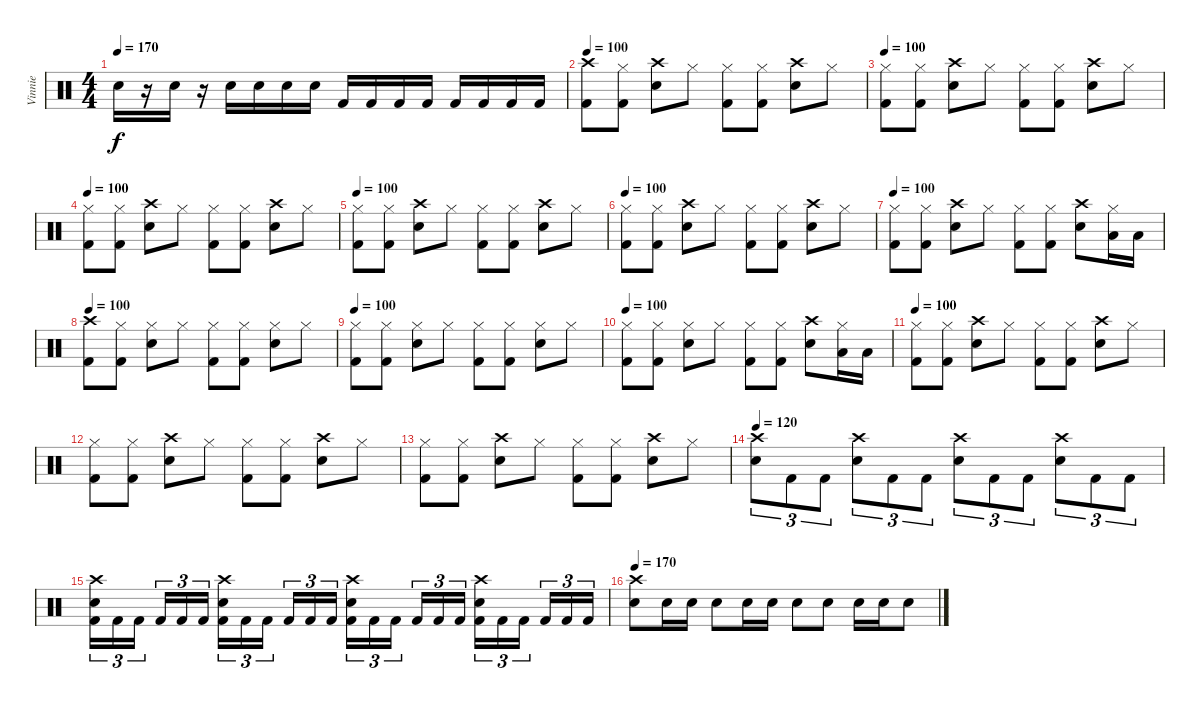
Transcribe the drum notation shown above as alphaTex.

\track ("Vinnie" "Vinnie") {instrument percussion}
\staff {score}
\articulation defaults
\ts (4 4)
\tempo 170
\clef neutral
\ks c "Electric Snare (hit)".16{dy f}
r.16 "Electric Snare (hit)".16 r.16 "Electric Snare (hit)".16 "Electric Snare (hit)".16 "Electric Snare (hit)".16 "Electric Snare (hit)".16 "Kick (hit) 2".16 "Kick (hit) 2".16 "Kick (hit) 2".16 "Kick (hit) 2".16 "Kick (hit) 2".16 "Kick (hit) 2".16 "Kick (hit) 2".16 "Kick (hit) 2".16 |
\tempo 100
("Crash high (hit)" "Kick (hit) 2").8 ("Hi-Hat (closed)" "Kick (hit) 2").8 ("Crash high (hit)" "Electric Snare (hit)").8 "Hi-Hat (closed)".8 ("Hi-Hat (closed)" "Kick (hit) 2").8 ("Hi-Hat (closed)" "Kick (hit) 2").8 ("Crash high (hit)" "Electric Snare (hit)").8 "Hi-Hat (closed)".8 |
\tempo 100
("Hi-Hat (closed)" "Kick (hit) 2").8 ("Hi-Hat (closed)" "Kick (hit) 2").8 ("Crash high (hit)" "Electric Snare (hit)").8 "Hi-Hat (closed)".8 ("Hi-Hat (closed)" "Kick (hit) 2").8 ("Hi-Hat (closed)" "Kick (hit) 2").8 ("Crash high (hit)" "Electric Snare (hit)").8 "Hi-Hat (closed)".8 |
\tempo 100
("Hi-Hat (closed)" "Kick (hit) 2").8 ("Hi-Hat (closed)" "Kick (hit) 2").8 ("Crash high (hit)" "Electric Snare (hit)").8 "Hi-Hat (closed)".8 ("Hi-Hat (closed)" "Kick (hit) 2").8 ("Hi-Hat (closed)" "Kick (hit) 2").8 ("Crash high (hit)" "Electric Snare (hit)").8 "Hi-Hat (closed)".8 |
\tempo 100
("Hi-Hat (closed)" "Kick (hit) 2").8 ("Hi-Hat (closed)" "Kick (hit) 2").8 ("Crash high (hit)" "Electric Snare (hit)").8 "Hi-Hat (closed)".8 ("Hi-Hat (closed)" "Kick (hit) 2").8 ("Hi-Hat (closed)" "Kick (hit) 2").8 ("Crash high (hit)" "Electric Snare (hit)").8 "Hi-Hat (closed)".8 |
\tempo 100
("Hi-Hat (closed)" "Kick (hit) 2").8 ("Hi-Hat (closed)" "Kick (hit) 2").8 ("Crash high (hit)" "Electric Snare (hit)").8 "Hi-Hat (closed)".8 ("Hi-Hat (closed)" "Kick (hit) 2").8 ("Hi-Hat (closed)" "Kick (hit) 2").8 ("Crash high (hit)" "Electric Snare (hit)").8 "Hi-Hat (closed)".8 |
\tempo 100
("Hi-Hat (closed)" "Kick (hit) 2").8 ("Hi-Hat (closed)" "Kick (hit) 2").8 ("Crash high (hit)" "Electric Snare (hit)").8 "Hi-Hat (closed)".8 ("Hi-Hat (closed)" "Kick (hit) 2").8 ("Hi-Hat (closed)" "Kick (hit) 2").8 ("Crash high (hit)" "Electric Snare (hit)").8 ("Hi-Hat (closed)" "Low Tom (hit)").16 "Low Tom (hit)".16 |
\tempo 100
("Crash high (hit)" "Kick (hit) 2").8 ("Hi-Hat (closed)" "Kick (hit) 2").8 ("Hi-Hat (closed)" "Electric Snare (hit)").8 "Hi-Hat (closed)".8 ("Hi-Hat (closed)" "Kick (hit) 2").8 ("Hi-Hat (closed)" "Kick (hit) 2").8 ("Hi-Hat (closed)" "Electric Snare (hit)").8 "Hi-Hat (closed)".8 |
\tempo 100
("Hi-Hat (closed)" "Kick (hit) 2").8 ("Hi-Hat (closed)" "Kick (hit) 2").8 ("Hi-Hat (closed)" "Electric Snare (hit)").8 "Hi-Hat (closed)".8 ("Hi-Hat (closed)" "Kick (hit) 2").8 ("Hi-Hat (closed)" "Kick (hit) 2").8 ("Hi-Hat (closed)" "Electric Snare (hit)").8 "Hi-Hat (closed)".8 |
\tempo 100
("Hi-Hat (closed)" "Kick (hit) 2").8 ("Hi-Hat (closed)" "Kick (hit) 2").8 ("Hi-Hat (closed)" "Electric Snare (hit)").8 "Hi-Hat (closed)".8 ("Hi-Hat (closed)" "Kick (hit) 2").8 ("Hi-Hat (closed)" "Kick (hit) 2").8 ("Crash high (hit)" "Electric Snare (hit)").8 ("Hi-Hat (closed)" "Low Tom (hit)").16 "Low Tom (hit)".16 |
\tempo 100
("Hi-Hat (closed)" "Kick (hit) 2").8 ("Hi-Hat (closed)" "Kick (hit) 2").8 ("Crash high (hit)" "Electric Snare (hit)").8 "Hi-Hat (closed)".8 ("Hi-Hat (closed)" "Kick (hit) 2").8 ("Hi-Hat (closed)" "Kick (hit) 2").8 ("Crash high (hit)" "Electric Snare (hit)").8 "Hi-Hat (closed)".8 |
("Hi-Hat (closed)" "Kick (hit) 2").8 ("Hi-Hat (closed)" "Kick (hit) 2").8 ("Crash high (hit)" "Electric Snare (hit)").8 "Hi-Hat (closed)".8 ("Hi-Hat (closed)" "Kick (hit) 2").8 ("Hi-Hat (closed)" "Kick (hit) 2").8 ("Crash high (hit)" "Electric Snare (hit)").8 "Hi-Hat (closed)".8 |
("Hi-Hat (closed)" "Kick (hit) 2").8 ("Hi-Hat (closed)" "Kick (hit) 2").8 ("Crash high (hit)" "Electric Snare (hit)").8 "Hi-Hat (closed)".8 ("Hi-Hat (closed)" "Kick (hit) 2").8 ("Hi-Hat (closed)" "Kick (hit) 2").8 ("Crash high (hit)" "Electric Snare (hit)").8 "Hi-Hat (closed)".8 |
\tempo 120
("Crash high (hit)" "Electric Snare (hit)").8{tu (3 2)} "Kick (hit) 2".8{tu (3 2)} "Kick (hit) 2".8{tu (3 2)} ("Crash high (hit)" "Electric Snare (hit)").8{tu (3 2)} "Kick (hit) 2".8{tu (3 2)} "Kick (hit) 2".8{tu (3 2)} ("Crash high (hit)" "Electric Snare (hit)").8{tu (3 2)} "Kick (hit) 2".8{tu (3 2)} "Kick (hit) 2".8{tu (3 2)} ("Crash high (hit)" "Electric Snare (hit)").8{tu (3 2)} "Kick (hit) 2".8{tu (3 2)} "Kick (hit) 2".8{tu (3 2)} |
("Crash high (hit)" "Electric Snare (hit)" "Kick (hit) 2").16{tu (3 2)} "Kick (hit) 2".16{tu (3 2)} "Kick (hit) 2".16{tu (3 2)} "Kick (hit) 2".16{tu (3 2)} "Kick (hit) 2".16{tu (3 2)} "Kick (hit) 2".16{tu (3 2)} ("Crash high (hit)" "Electric Snare (hit)" "Kick (hit) 2").16{tu (3 2)} "Kick (hit) 2".16{tu (3 2)} "Kick (hit) 2".16{tu (3 2)} "Kick (hit) 2".16{tu (3 2)} "Kick (hit) 2".16{tu (3 2)} "Kick (hit) 2".16{tu (3 2)} ("Crash high (hit)" "Electric Snare (hit)" "Kick (hit) 2").16{tu (3 2)} "Kick (hit) 2".16{tu (3 2)} "Kick (hit) 2".16{tu (3 2)} "Kick (hit) 2".16{tu (3 2)} "Kick (hit) 2".16{tu (3 2)} "Kick (hit) 2".16{tu (3 2)} ("Crash high (hit)" "Electric Snare (hit)" "Kick (hit) 2").16{tu (3 2)} "Kick (hit) 2".16{tu (3 2)} "Kick (hit) 2".16{tu (3 2)} "Kick (hit) 2".16{tu (3 2)} "Kick (hit) 2".16{tu (3 2)} "Kick (hit) 2".16{tu (3 2)} |
\tempo 170
("Crash high (hit)" "Electric Snare (hit)").8 "Electric Snare (hit)".16 "Electric Snare (hit)".16 "Electric Snare (hit)".8 "Electric Snare (hit)".16 "Electric Snare (hit)".16 "Electric Snare (hit)".8 "Electric Snare (hit)".8 "Electric Snare (hit)".16 "Electric Snare (hit)".16 "Electric Snare (hit)".8
